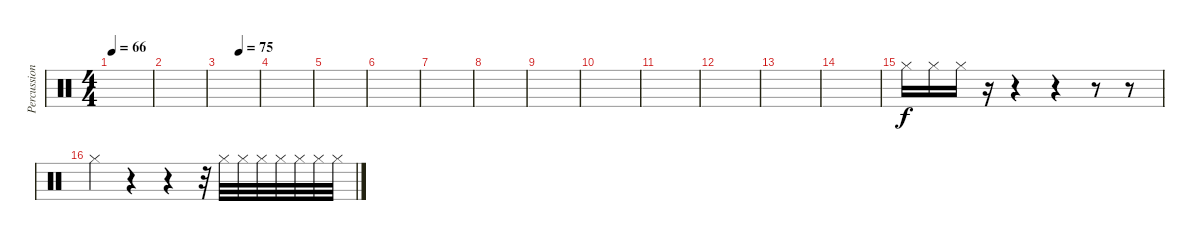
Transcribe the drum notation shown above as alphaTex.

\track ("Percussion" "Percussion") {instrument percussion}
\staff {score}
\articulation defaults
\ts (4 4)
\tempo 66
\clef neutral
\ks c
|
|
\tempo (75 0.5)
|
|
|
|
|
|
|
|
|
|
|
|
"Hi-Hat (closed)".16 "Hi-Hat (closed)".16 "Hi-Hat (closed)".16 r.16 r.4 r.4 r.8 r.8 |
"Hi-Hat (closed)".4 r.4 r.4 r.32 "Hi-Hat (closed)".32 "Hi-Hat (closed)".32 "Hi-Hat (closed)".32 "Hi-Hat (closed)".32 "Hi-Hat (closed)".32 "Hi-Hat (closed)".32 "Hi-Hat (closed)".32
